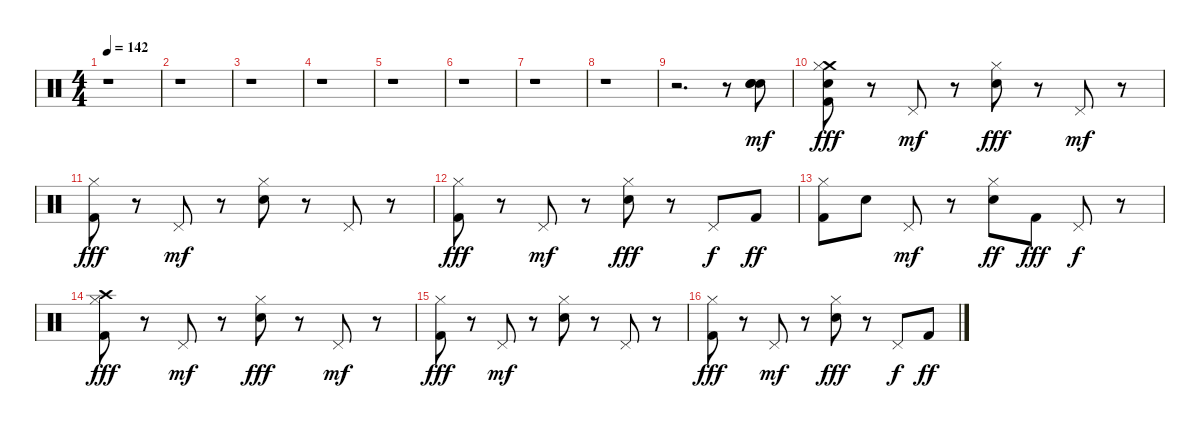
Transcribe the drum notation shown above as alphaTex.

\track "" {instrument percussion}
\staff {score}
\articulation defaults
\ts (4 4)
\tempo 142
\clef neutral
\ks c
r.1{dy mf} |
r.1 |
r.1 |
r.1 |
r.1 |
r.1 |
r.1 |
r.1 |
r.2{d} r.8 ("Electric Snare (hit)" "Electric Snare (hit)" "Electric Snare (hit)").8 |
("Electric Snare (hit)" "Crash medium (hit)" "Kick (hit) 2" "Hi-Hat (closed)").8{dy fff} r.8 "Pedal Hi-Hat (hit)".8{dy mf} r.8 ("Electric Snare (hit)" "Hi-Hat (closed)").8{dy fff} r.8 "Pedal Hi-Hat (hit)".8{dy mf} r.8 |
("Kick (hit) 2" "Hi-Hat (closed)").8{dy fff} r.8 "Pedal Hi-Hat (hit)".8{dy mf} r.8 ("Electric Snare (hit)" "Hi-Hat (closed)").8 r.8 "Pedal Hi-Hat (hit)".8 r.8 |
("Kick (hit) 2" "Hi-Hat (closed)").8{dy fff} r.8 "Pedal Hi-Hat (hit)".8{dy mf} r.8 ("Electric Snare (hit)" "Hi-Hat (closed)").8{dy fff} r.8 "Pedal Hi-Hat (hit)".8{dy f} "Kick (hit) 2".8{dy ff} |
("Kick (hit) 2" "Hi-Hat (closed)").8 "Electric Snare (hit)".8 "Pedal Hi-Hat (hit)".8{dy mf} r.8 ("Electric Snare (hit)" "Hi-Hat (closed)").8{dy ff} "Kick (hit) 2".8{dy fff} "Pedal Hi-Hat (hit)".8{dy f} r.8 |
("Crash high (hit)" "Kick (hit) 2" "Hi-Hat (closed)").8{dy fff} r.8 "Pedal Hi-Hat (hit)".8{dy mf} r.8 ("Electric Snare (hit)" "Hi-Hat (closed)").8{dy fff} r.8 "Pedal Hi-Hat (hit)".8{dy mf} r.8 |
("Kick (hit) 2" "Hi-Hat (closed)").8{dy fff} r.8 "Pedal Hi-Hat (hit)".8{dy mf} r.8 ("Electric Snare (hit)" "Hi-Hat (closed)").8 r.8 "Pedal Hi-Hat (hit)".8 r.8 |
("Kick (hit) 2" "Hi-Hat (closed)").8{dy fff} r.8 "Pedal Hi-Hat (hit)".8{dy mf} r.8 ("Electric Snare (hit)" "Hi-Hat (closed)").8{dy fff} r.8 "Pedal Hi-Hat (hit)".8{dy f} "Kick (hit) 2".8{dy ff}
